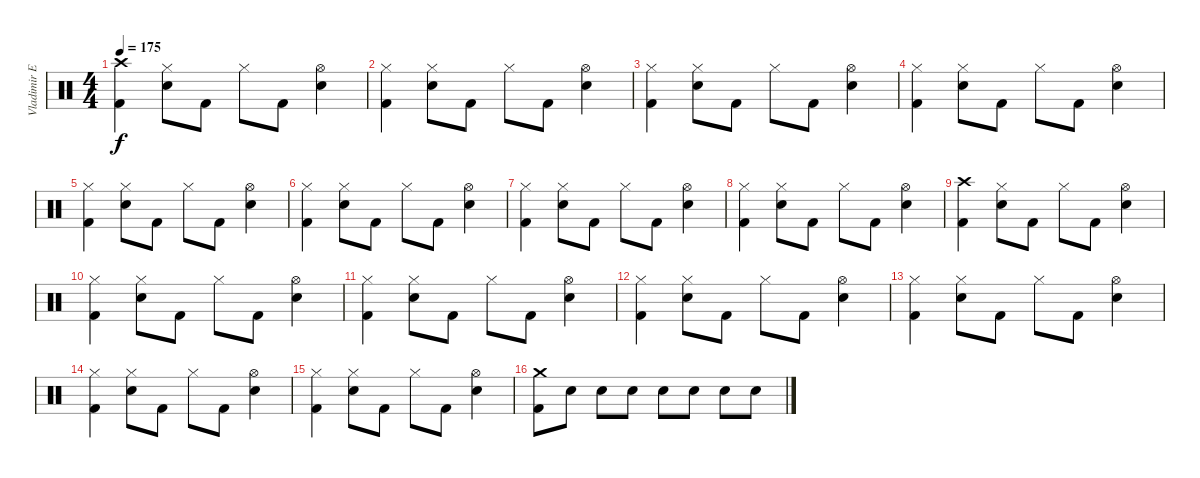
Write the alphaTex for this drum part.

\track ("Vladimir Ermakoff" "Vladimir E") {instrument percussion}
\staff {score}
\articulation defaults
\ts (4 4)
\tempo 175
\clef neutral
\ks c
("Crash high (hit)" "Kick (hit) 2").4{dy f} ("Hi-Hat (closed)" "Electric Snare (hit)").8 "Kick (hit) 2".8 "Hi-Hat (closed)".8 "Kick (hit) 2".8 ("Hi-Hat (open)" "Electric Snare (hit)").4 |
("Hi-Hat (closed)" "Kick (hit) 2").4 ("Hi-Hat (closed)" "Electric Snare (hit)").8 "Kick (hit) 2".8 "Hi-Hat (closed)".8 "Kick (hit) 2".8 ("Hi-Hat (open)" "Electric Snare (hit)").4 |
("Hi-Hat (closed)" "Kick (hit) 2").4 ("Hi-Hat (closed)" "Electric Snare (hit)").8 "Kick (hit) 2".8 "Hi-Hat (closed)".8 "Kick (hit) 2".8 ("Hi-Hat (open)" "Electric Snare (hit)").4 |
("Hi-Hat (closed)" "Kick (hit) 2").4 ("Hi-Hat (closed)" "Electric Snare (hit)").8 "Kick (hit) 2".8 "Hi-Hat (closed)".8 "Kick (hit) 2".8 ("Hi-Hat (open)" "Electric Snare (hit)").4 |
("Hi-Hat (closed)" "Kick (hit) 2").4 ("Hi-Hat (closed)" "Electric Snare (hit)").8 "Kick (hit) 2".8 "Hi-Hat (closed)".8 "Kick (hit) 2".8 ("Hi-Hat (open)" "Electric Snare (hit)").4 |
("Hi-Hat (closed)" "Kick (hit) 2").4 ("Hi-Hat (closed)" "Electric Snare (hit)").8 "Kick (hit) 2".8 "Hi-Hat (closed)".8 "Kick (hit) 2".8 ("Hi-Hat (open)" "Electric Snare (hit)").4 |
("Hi-Hat (closed)" "Kick (hit) 2").4 ("Hi-Hat (closed)" "Electric Snare (hit)").8 "Kick (hit) 2".8 "Hi-Hat (closed)".8 "Kick (hit) 2".8 ("Hi-Hat (open)" "Electric Snare (hit)").4 |
("Hi-Hat (closed)" "Kick (hit) 2").4 ("Hi-Hat (closed)" "Electric Snare (hit)").8 "Kick (hit) 2".8 "Hi-Hat (closed)".8 "Kick (hit) 2".8 ("Hi-Hat (open)" "Electric Snare (hit)").4 |
("Crash high (hit)" "Kick (hit) 2").4 ("Hi-Hat (closed)" "Electric Snare (hit)").8 "Kick (hit) 2".8 "Hi-Hat (closed)".8 "Kick (hit) 2".8 ("Hi-Hat (open)" "Electric Snare (hit)").4 |
("Hi-Hat (closed)" "Kick (hit) 2").4 ("Hi-Hat (closed)" "Electric Snare (hit)").8 "Kick (hit) 2".8 "Hi-Hat (closed)".8 "Kick (hit) 2".8 ("Hi-Hat (open)" "Electric Snare (hit)").4 |
("Hi-Hat (closed)" "Kick (hit) 2").4 ("Hi-Hat (closed)" "Electric Snare (hit)").8 "Kick (hit) 2".8 "Hi-Hat (closed)".8 "Kick (hit) 2".8 ("Hi-Hat (open)" "Electric Snare (hit)").4 |
("Hi-Hat (closed)" "Kick (hit) 2").4 ("Hi-Hat (closed)" "Electric Snare (hit)").8 "Kick (hit) 2".8 "Hi-Hat (closed)".8 "Kick (hit) 2".8 ("Hi-Hat (open)" "Electric Snare (hit)").4 |
("Hi-Hat (closed)" "Kick (hit) 2").4 ("Hi-Hat (closed)" "Electric Snare (hit)").8 "Kick (hit) 2".8 "Hi-Hat (closed)".8 "Kick (hit) 2".8 ("Hi-Hat (open)" "Electric Snare (hit)").4 |
("Hi-Hat (closed)" "Kick (hit) 2").4 ("Hi-Hat (closed)" "Electric Snare (hit)").8 "Kick (hit) 2".8 "Hi-Hat (closed)".8 "Kick (hit) 2".8 ("Hi-Hat (open)" "Electric Snare (hit)").4 |
("Hi-Hat (closed)" "Kick (hit) 2").4 ("Hi-Hat (closed)" "Electric Snare (hit)").8 "Kick (hit) 2".8 "Hi-Hat (closed)".8 "Kick (hit) 2".8 ("Hi-Hat (open)" "Electric Snare (hit)").4 |
("Crash medium (hit)" "Kick (hit) 2").8 "Electric Snare (hit)".8 "Electric Snare (hit)".8 "Electric Snare (hit)".8 "Electric Snare (hit)".8 "Electric Snare (hit)".8 "Electric Snare (hit)".8 "Electric Snare (hit)".8
